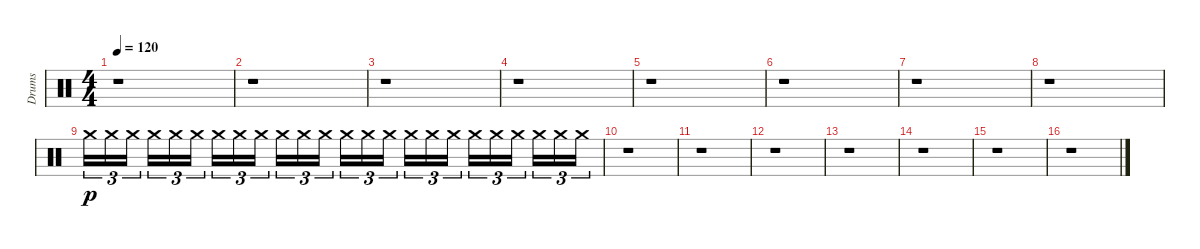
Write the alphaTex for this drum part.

\track ("Drums" "Drums") {instrument percussion}
\staff {score}
\articulation defaults
\ts (4 4)
\tempo 120
\clef neutral
\ks c
r.1{dy p} |
r.1 |
r.1 |
r.1 |
r.1 |
r.1 |
r.1 |
r.1{volume 0} |
"Crash medium (hit)".16{tu (3 2) volume 16} "Crash medium (hit)".16{tu (3 2)} "Crash medium (hit)".16{tu (3 2)} "Crash medium (hit)".16{tu (3 2)} "Crash medium (hit)".16{tu (3 2)} "Crash medium (hit)".16{tu (3 2)} "Crash medium (hit)".16{tu (3 2)} "Crash medium (hit)".16{tu (3 2)} "Crash medium (hit)".16{tu (3 2)} "Crash medium (hit)".16{tu (3 2)} "Crash medium (hit)".16{tu (3 2)} "Crash medium (hit)".16{tu (3 2)} "Crash medium (hit)".16{tu (3 2)} "Crash medium (hit)".16{tu (3 2)} "Crash medium (hit)".16{tu (3 2)} "Crash medium (hit)".16{tu (3 2)} "Crash medium (hit)".16{tu (3 2)} "Crash medium (hit)".16{tu (3 2)} "Crash medium (hit)".16{tu (3 2)} "Crash medium (hit)".16{tu (3 2)} "Crash medium (hit)".16{tu (3 2)} "Crash medium (hit)".16{tu (3 2)} "Crash medium (hit)".16{tu (3 2)} "Crash medium (hit)".16{tu (3 2)} |
r.1 |
r.1 |
r.1 |
r.1 |
r.1 |
r.1 |
r.1{volume 0}
